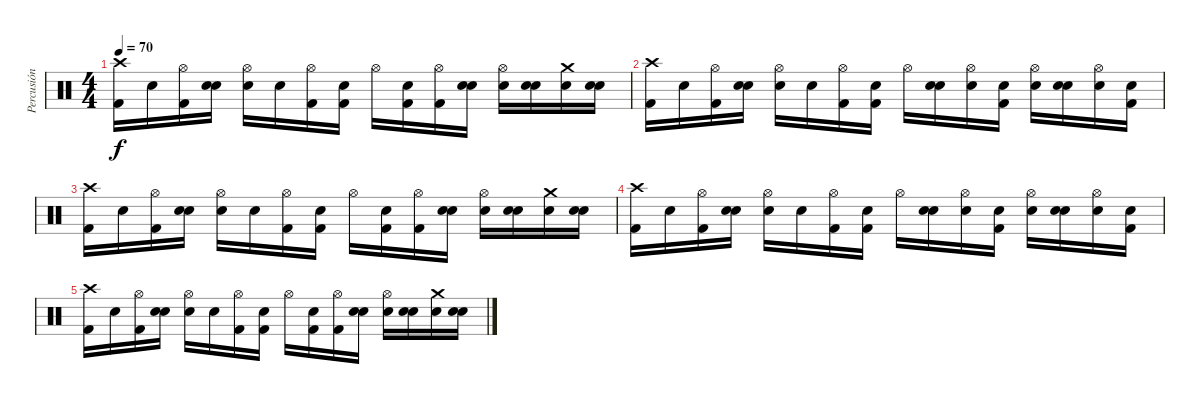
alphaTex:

\track ("Percusión" "Percusión") {instrument percussion}
\staff {score}
\articulation defaults
\ts (4 4)
\tempo 70
\clef neutral
\ks c
("Crash high (hit)" "Kick (hit) 2").16{dy f} "Snare (hit)".16 ("Hi-Hat (open)" "Kick (hit) 2").16 ("Snare (hit)" "Snare (hit)").16 ("Hi-Hat (open)" "Electric Snare (hit)").16 "Snare (hit)".16 ("Hi-Hat (open)" "Kick (hit) 2").16 ("Snare (hit)" "Kick (hit) 2").16 "Hi-Hat (open)".16 ("Snare (hit)" "Kick (hit) 2").16 ("Hi-Hat (open)" "Kick (hit) 2").16 ("Snare (hit)" "Snare (hit)").16 ("Hi-Hat (open)" "Electric Snare (hit)").16 ("Snare (hit)" "Electric Snare (hit)").16 ("Crash medium (hit)" "Electric Snare (hit)").16 ("Snare (hit)" "Electric Snare (hit)").16 |
("Crash high (hit)" "Kick (hit) 2").16 "Snare (hit)".16 ("Hi-Hat (open)" "Kick (hit) 2").16 ("Snare (hit)" "Snare (hit)").16 ("Hi-Hat (open)" "Electric Snare (hit)").16 "Snare (hit)".16 ("Hi-Hat (open)" "Kick (hit) 2").16 ("Snare (hit)" "Kick (hit) 2").16 "Hi-Hat (open)".16 ("Snare (hit)" "Electric Snare (hit)").16 ("Hi-Hat (open)" "Snare (hit)").16 ("Snare (hit)" "Kick (hit) 2").16 ("Hi-Hat (open)" "Electric Snare (hit)").16 ("Snare (hit)" "Electric Snare (hit)").16 ("Hi-Hat (open)" "Snare (hit)").16 ("Snare (hit)" "Kick (hit) 2").16 |
("Crash high (hit)" "Kick (hit) 2").16 "Snare (hit)".16 ("Hi-Hat (open)" "Kick (hit) 2").16 ("Snare (hit)" "Snare (hit)").16 ("Hi-Hat (open)" "Electric Snare (hit)").16 "Snare (hit)".16 ("Hi-Hat (open)" "Kick (hit) 2").16 ("Snare (hit)" "Kick (hit) 2").16 "Hi-Hat (open)".16 ("Snare (hit)" "Kick (hit) 2").16 ("Hi-Hat (open)" "Kick (hit) 2").16 ("Snare (hit)" "Snare (hit)").16 ("Hi-Hat (open)" "Electric Snare (hit)").16 ("Snare (hit)" "Electric Snare (hit)").16 ("Crash medium (hit)" "Electric Snare (hit)").16 ("Snare (hit)" "Electric Snare (hit)").16 |
("Crash high (hit)" "Kick (hit) 2").16 "Snare (hit)".16 ("Hi-Hat (open)" "Kick (hit) 2").16 ("Snare (hit)" "Snare (hit)").16 ("Hi-Hat (open)" "Electric Snare (hit)").16 "Snare (hit)".16 ("Hi-Hat (open)" "Kick (hit) 2").16 ("Snare (hit)" "Kick (hit) 2").16 "Hi-Hat (open)".16 ("Snare (hit)" "Electric Snare (hit)").16 ("Hi-Hat (open)" "Snare (hit)").16 ("Snare (hit)" "Kick (hit) 2").16 ("Hi-Hat (open)" "Electric Snare (hit)").16 ("Snare (hit)" "Electric Snare (hit)").16 ("Hi-Hat (open)" "Snare (hit)").16 ("Snare (hit)" "Kick (hit) 2").16 |
("Crash high (hit)" "Kick (hit) 2").16 "Snare (hit)".16 ("Hi-Hat (open)" "Kick (hit) 2").16 ("Snare (hit)" "Snare (hit)").16 ("Hi-Hat (open)" "Electric Snare (hit)").16 "Snare (hit)".16 ("Hi-Hat (open)" "Kick (hit) 2").16 ("Snare (hit)" "Kick (hit) 2").16 "Hi-Hat (open)".16 ("Snare (hit)" "Kick (hit) 2").16 ("Hi-Hat (open)" "Kick (hit) 2").16 ("Snare (hit)" "Snare (hit)").16 ("Hi-Hat (open)" "Electric Snare (hit)").16 ("Snare (hit)" "Electric Snare (hit)").16 ("Crash medium (hit)" "Electric Snare (hit)").16 ("Snare (hit)" "Electric Snare (hit)").16
